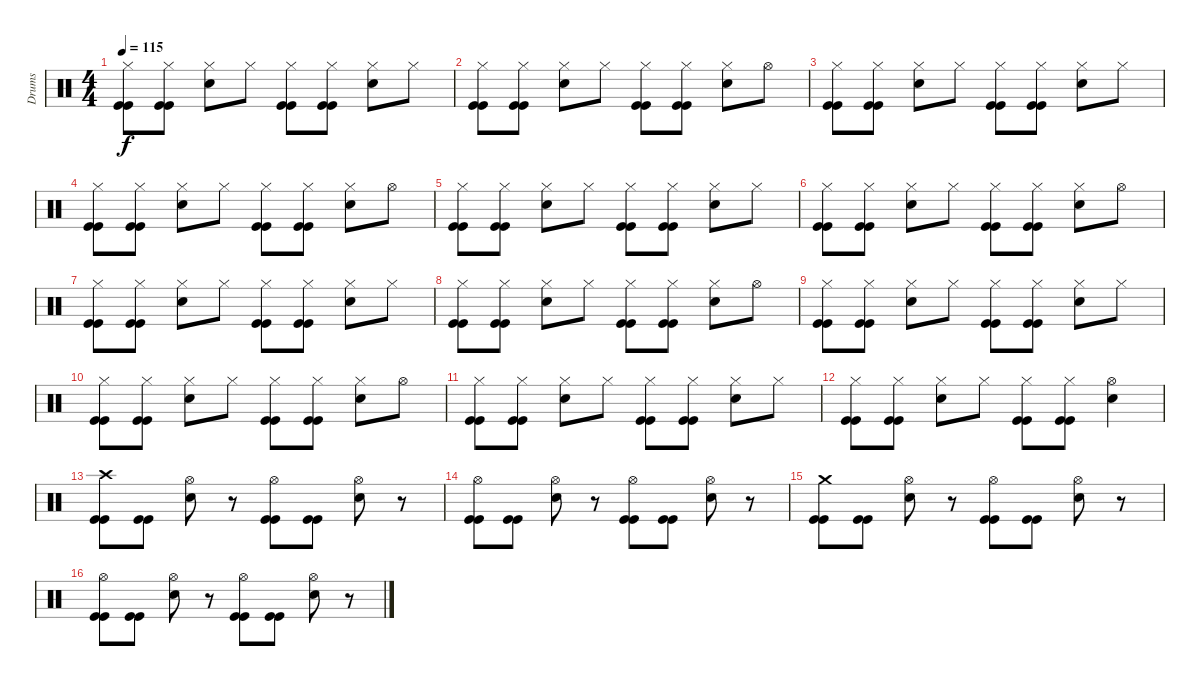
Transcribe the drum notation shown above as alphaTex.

\track ("Drums" "Drums") {instrument percussion}
\staff {score}
\articulation defaults
\ts (4 4)
\tempo 115
\clef neutral
\ks c
("Hi-Hat (closed)" "Kick (hit)" "Kick (hit)").8{dy f} ("Hi-Hat (closed)" "Kick (hit)" "Kick (hit)").8 ("Hi-Hat (closed)" "Electric Snare (hit)").8 "Hi-Hat (closed)".8 ("Hi-Hat (closed)" "Kick (hit)" "Kick (hit)").8 ("Hi-Hat (closed)" "Kick (hit)" "Kick (hit)").8 ("Hi-Hat (closed)" "Electric Snare (hit)").8 "Hi-Hat (closed)".8 |
("Hi-Hat (closed)" "Kick (hit)" "Kick (hit)").8 ("Hi-Hat (closed)" "Kick (hit)" "Kick (hit)").8 ("Hi-Hat (closed)" "Electric Snare (hit)").8 "Hi-Hat (closed)".8 ("Hi-Hat (closed)" "Kick (hit)" "Kick (hit)").8 ("Hi-Hat (closed)" "Kick (hit)" "Kick (hit)").8 ("Hi-Hat (closed)" "Electric Snare (hit)").8 "Hi-Hat (open)".8 |
("Hi-Hat (closed)" "Kick (hit)" "Kick (hit)").8 ("Hi-Hat (closed)" "Kick (hit)" "Kick (hit)").8 ("Hi-Hat (closed)" "Electric Snare (hit)").8 "Hi-Hat (closed)".8 ("Hi-Hat (closed)" "Kick (hit)" "Kick (hit)").8 ("Hi-Hat (closed)" "Kick (hit)" "Kick (hit)").8 ("Hi-Hat (closed)" "Electric Snare (hit)").8 "Hi-Hat (closed)".8 |
("Hi-Hat (closed)" "Kick (hit)" "Kick (hit)").8 ("Hi-Hat (closed)" "Kick (hit)" "Kick (hit)").8 ("Hi-Hat (closed)" "Electric Snare (hit)").8 "Hi-Hat (closed)".8 ("Hi-Hat (closed)" "Kick (hit)" "Kick (hit)").8 ("Hi-Hat (closed)" "Kick (hit)" "Kick (hit)").8 ("Hi-Hat (closed)" "Electric Snare (hit)").8 "Hi-Hat (open)".8 |
("Hi-Hat (closed)" "Kick (hit)" "Kick (hit)").8 ("Hi-Hat (closed)" "Kick (hit)" "Kick (hit)").8 ("Hi-Hat (closed)" "Electric Snare (hit)").8 "Hi-Hat (closed)".8 ("Hi-Hat (closed)" "Kick (hit)" "Kick (hit)").8 ("Hi-Hat (closed)" "Kick (hit)" "Kick (hit)").8 ("Hi-Hat (closed)" "Electric Snare (hit)").8 "Hi-Hat (closed)".8 |
("Hi-Hat (closed)" "Kick (hit)" "Kick (hit)").8 ("Hi-Hat (closed)" "Kick (hit)" "Kick (hit)").8 ("Hi-Hat (closed)" "Electric Snare (hit)").8 "Hi-Hat (closed)".8 ("Hi-Hat (closed)" "Kick (hit)" "Kick (hit)").8 ("Hi-Hat (closed)" "Kick (hit)" "Kick (hit)").8 ("Hi-Hat (closed)" "Electric Snare (hit)").8 "Hi-Hat (open)".8 |
("Hi-Hat (closed)" "Kick (hit)" "Kick (hit)").8 ("Hi-Hat (closed)" "Kick (hit)" "Kick (hit)").8 ("Hi-Hat (closed)" "Electric Snare (hit)").8 "Hi-Hat (closed)".8 ("Hi-Hat (closed)" "Kick (hit)" "Kick (hit)").8 ("Hi-Hat (closed)" "Kick (hit)" "Kick (hit)").8 ("Hi-Hat (closed)" "Electric Snare (hit)").8 "Hi-Hat (closed)".8 |
("Hi-Hat (closed)" "Kick (hit)" "Kick (hit)").8 ("Hi-Hat (closed)" "Kick (hit)" "Kick (hit)").8 ("Hi-Hat (closed)" "Electric Snare (hit)").8 "Hi-Hat (closed)".8 ("Hi-Hat (closed)" "Kick (hit)" "Kick (hit)").8 ("Hi-Hat (closed)" "Kick (hit)" "Kick (hit)").8 ("Hi-Hat (closed)" "Electric Snare (hit)").8 "Hi-Hat (open)".8 |
("Hi-Hat (closed)" "Kick (hit)" "Kick (hit)").8 ("Hi-Hat (closed)" "Kick (hit)" "Kick (hit)").8 ("Hi-Hat (closed)" "Electric Snare (hit)").8 "Hi-Hat (closed)".8 ("Hi-Hat (closed)" "Kick (hit)" "Kick (hit)").8 ("Hi-Hat (closed)" "Kick (hit)" "Kick (hit)").8 ("Hi-Hat (closed)" "Electric Snare (hit)").8 "Hi-Hat (closed)".8 |
("Hi-Hat (closed)" "Kick (hit)" "Kick (hit)").8 ("Hi-Hat (closed)" "Kick (hit)" "Kick (hit)").8 ("Hi-Hat (closed)" "Electric Snare (hit)").8 "Hi-Hat (closed)".8 ("Hi-Hat (closed)" "Kick (hit)" "Kick (hit)").8 ("Hi-Hat (closed)" "Kick (hit)" "Kick (hit)").8 ("Hi-Hat (closed)" "Electric Snare (hit)").8 "Hi-Hat (open)".8 |
("Hi-Hat (closed)" "Kick (hit)" "Kick (hit)").8 ("Hi-Hat (closed)" "Kick (hit)" "Kick (hit)").8 ("Hi-Hat (closed)" "Electric Snare (hit)").8 "Hi-Hat (closed)".8 ("Hi-Hat (closed)" "Kick (hit)" "Kick (hit)").8 ("Hi-Hat (closed)" "Kick (hit)" "Kick (hit)").8 ("Hi-Hat (closed)" "Electric Snare (hit)").8 "Hi-Hat (closed)".8 |
("Hi-Hat (closed)" "Kick (hit)" "Kick (hit)").8 ("Hi-Hat (closed)" "Kick (hit)" "Kick (hit)").8 ("Hi-Hat (closed)" "Electric Snare (hit)").8 "Hi-Hat (closed)".8 ("Hi-Hat (closed)" "Kick (hit)" "Kick (hit)").8 ("Hi-Hat (closed)" "Kick (hit)" "Kick (hit)").8 ("Hi-Hat (open)" "Electric Snare (hit)").4 |
("Crash high (hit)" "Kick (hit)" "Kick (hit)").8 ("Kick (hit)" "Kick (hit)").8 ("Hi-Hat (open)" "Electric Snare (hit)").8 r.8 ("Hi-Hat (open)" "Kick (hit)" "Kick (hit)").8 ("Kick (hit)" "Kick (hit)").8 ("Hi-Hat (open)" "Electric Snare (hit)").8 r.8 |
("Hi-Hat (open)" "Kick (hit)" "Kick (hit)").8 ("Kick (hit)" "Kick (hit)").8 ("Hi-Hat (open)" "Electric Snare (hit)").8 r.8 ("Hi-Hat (open)" "Kick (hit)" "Kick (hit)").8 ("Kick (hit)" "Kick (hit)").8 ("Hi-Hat (open)" "Electric Snare (hit)").8 r.8 |
("Crash medium (hit)" "Kick (hit)" "Kick (hit)").8 ("Kick (hit)" "Kick (hit)").8 ("Hi-Hat (open)" "Electric Snare (hit)").8 r.8 ("Hi-Hat (open)" "Kick (hit)" "Kick (hit)").8 ("Kick (hit)" "Kick (hit)").8 ("Hi-Hat (open)" "Electric Snare (hit)").8 r.8 |
("Hi-Hat (open)" "Kick (hit)" "Kick (hit)").8 ("Kick (hit)" "Kick (hit)").8 ("Hi-Hat (open)" "Electric Snare (hit)").8 r.8 ("Hi-Hat (open)" "Kick (hit)" "Kick (hit)").8 ("Kick (hit)" "Kick (hit)").8 ("Hi-Hat (open)" "Electric Snare (hit)").8 r.8
